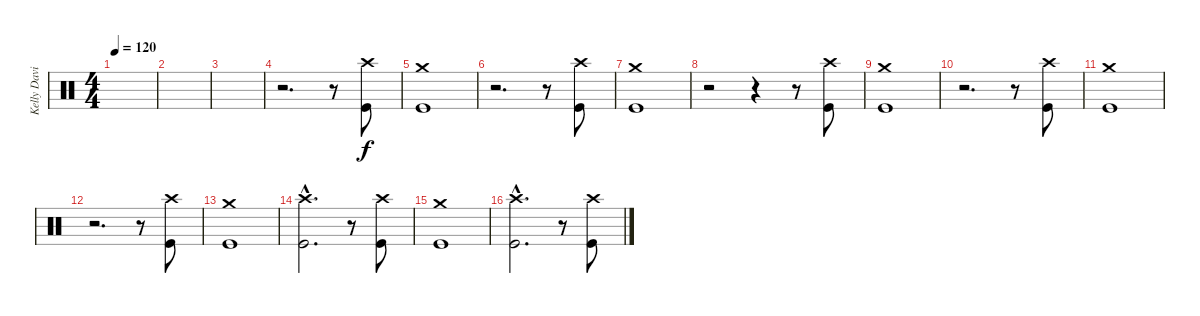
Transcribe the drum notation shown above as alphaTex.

\track ("Kelly David Smith" "Kelly Davi") {instrument percussion}
\staff {score}
\articulation defaults
\ts (4 4)
\tempo 120
\clef neutral
\ks c
|
|
|
r.2{d} r.8 ("Crash high (hit)" "Kick (hit)").8 |
("Crash medium (hit)" "Kick (hit)").1 |
r.2{d} r.8 ("Crash high (hit)" "Kick (hit)").8 |
("Crash medium (hit)" "Kick (hit)").1 |
r.2 r.4 r.8 ("Crash high (hit)" "Kick (hit)").8 |
("Crash medium (hit)" "Kick (hit)").1 |
r.2{d} r.8 ("Crash high (hit)" "Kick (hit)").8 |
("Crash medium (hit)" "Kick (hit)").1 |
r.2{d} r.8 ("Crash high (hit)" "Kick (hit)").8 |
("Crash medium (hit)" "Kick (hit)").1 |
("Crash high (hit)"{hac} "Kick (hit)"{hac}).2{d} r.8 ("Crash high (hit)" "Kick (hit)").8 |
("Crash medium (hit)" "Kick (hit)").1 |
("Crash high (hit)"{hac} "Kick (hit)"{hac}).2{d} r.8 ("Crash high (hit)" "Kick (hit)").8
